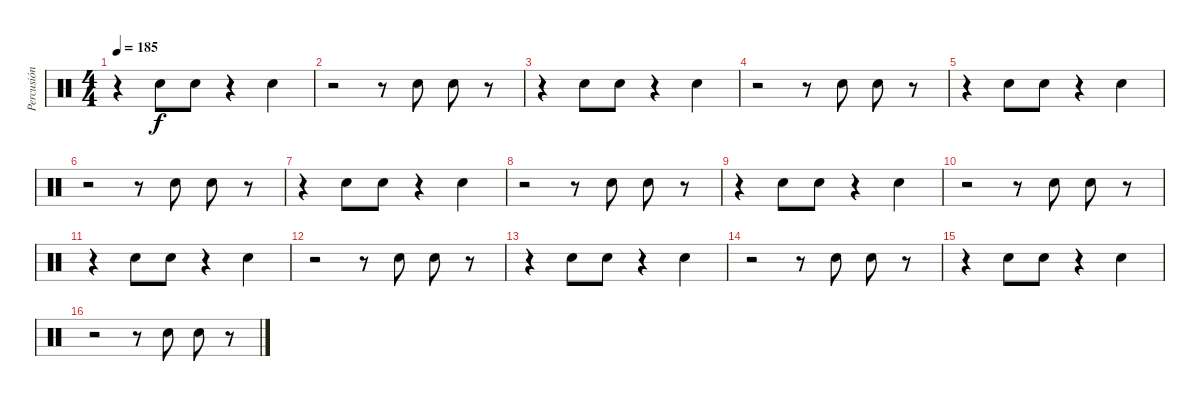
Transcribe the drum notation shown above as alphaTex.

\track ("Percusión" "Percusión") {instrument percussion}
\staff {score}
\articulation defaults
\ts (4 4)
\tempo 185
\clef neutral
\ks c
r.4{dy f} "Hand Clap (hit)".8 "Hand Clap (hit)".8 r.4 "Hand Clap (hit)".4 |
r.2 r.8 "Hand Clap (hit)".8 "Hand Clap (hit)".8 r.8 |
r.4 "Hand Clap (hit)".8 "Hand Clap (hit)".8 r.4 "Hand Clap (hit)".4 |
r.2 r.8 "Hand Clap (hit)".8 "Hand Clap (hit)".8 r.8 |
r.4 "Hand Clap (hit)".8 "Hand Clap (hit)".8 r.4 "Hand Clap (hit)".4 |
r.2 r.8 "Hand Clap (hit)".8 "Hand Clap (hit)".8 r.8 |
r.4 "Hand Clap (hit)".8 "Hand Clap (hit)".8 r.4 "Hand Clap (hit)".4 |
r.2 r.8 "Hand Clap (hit)".8 "Hand Clap (hit)".8 r.8 |
r.4 "Hand Clap (hit)".8 "Hand Clap (hit)".8 r.4 "Hand Clap (hit)".4 |
r.2 r.8 "Hand Clap (hit)".8 "Hand Clap (hit)".8 r.8 |
r.4 "Hand Clap (hit)".8 "Hand Clap (hit)".8 r.4 "Hand Clap (hit)".4 |
r.2 r.8 "Hand Clap (hit)".8 "Hand Clap (hit)".8 r.8 |
r.4 "Hand Clap (hit)".8 "Hand Clap (hit)".8 r.4 "Hand Clap (hit)".4 |
r.2 r.8 "Hand Clap (hit)".8 "Hand Clap (hit)".8 r.8 |
r.4 "Hand Clap (hit)".8 "Hand Clap (hit)".8 r.4 "Hand Clap (hit)".4 |
r.2 r.8 "Hand Clap (hit)".8 "Hand Clap (hit)".8 r.8
